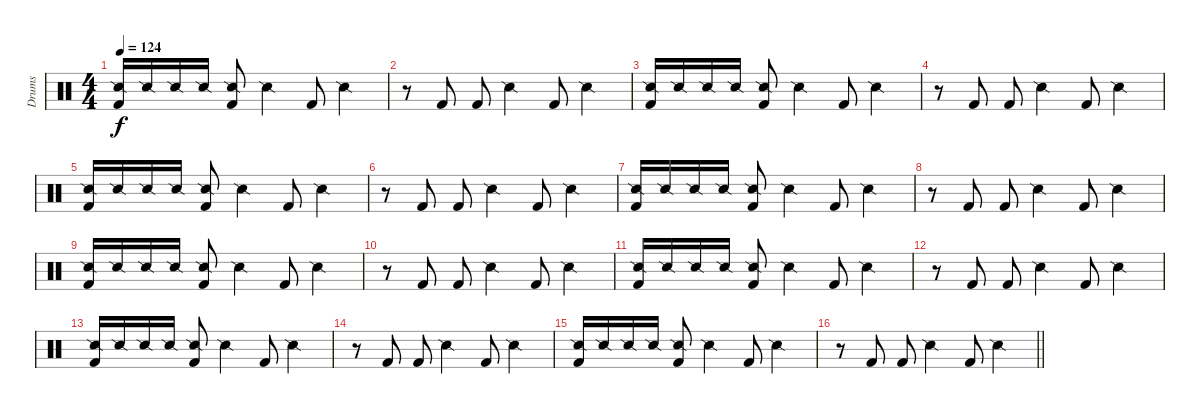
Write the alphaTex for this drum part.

\track ("Drums" "Drums") {instrument percussion}
\staff {score}
\articulation defaults
\ts (4 4)
\tempo 124
\clef neutral
\ks c
("Snare (side stick) 2" "Kick (hit) 2").16{dy f} "Snare (side stick) 2".16 "Snare (side stick) 2".16 "Snare (side stick) 2".16 ("Snare (side stick) 2" "Kick (hit) 2").8 "Snare (side stick) 2".4 "Kick (hit) 2".8 "Snare (side stick) 2".4 |
r.8 "Kick (hit) 2".8 "Kick (hit) 2".8 "Snare (side stick) 2".4 "Kick (hit) 2".8 "Snare (side stick) 2".4 |
("Snare (side stick) 2" "Kick (hit) 2").16 "Snare (side stick) 2".16 "Snare (side stick) 2".16 "Snare (side stick) 2".16 ("Snare (side stick) 2" "Kick (hit) 2").8 "Snare (side stick) 2".4 "Kick (hit) 2".8 "Snare (side stick) 2".4 |
r.8 "Kick (hit) 2".8 "Kick (hit) 2".8 "Snare (side stick) 2".4 "Kick (hit) 2".8 "Snare (side stick) 2".4 |
("Snare (side stick) 2" "Kick (hit) 2").16 "Snare (side stick) 2".16 "Snare (side stick) 2".16 "Snare (side stick) 2".16 ("Snare (side stick) 2" "Kick (hit) 2").8 "Snare (side stick) 2".4 "Kick (hit) 2".8 "Snare (side stick) 2".4 |
r.8 "Kick (hit) 2".8 "Kick (hit) 2".8 "Snare (side stick) 2".4 "Kick (hit) 2".8 "Snare (side stick) 2".4 |
("Snare (side stick) 2" "Kick (hit) 2").16 "Snare (side stick) 2".16 "Snare (side stick) 2".16 "Snare (side stick) 2".16 ("Snare (side stick) 2" "Kick (hit) 2").8 "Snare (side stick) 2".4 "Kick (hit) 2".8 "Snare (side stick) 2".4 |
r.8 "Kick (hit) 2".8 "Kick (hit) 2".8 "Snare (side stick) 2".4 "Kick (hit) 2".8 "Snare (side stick) 2".4 |
("Snare (side stick) 2" "Kick (hit) 2").16 "Snare (side stick) 2".16 "Snare (side stick) 2".16 "Snare (side stick) 2".16 ("Snare (side stick) 2" "Kick (hit) 2").8 "Snare (side stick) 2".4 "Kick (hit) 2".8 "Snare (side stick) 2".4 |
r.8 "Kick (hit) 2".8 "Kick (hit) 2".8 "Snare (side stick) 2".4 "Kick (hit) 2".8 "Snare (side stick) 2".4 |
("Snare (side stick) 2" "Kick (hit) 2").16 "Snare (side stick) 2".16 "Snare (side stick) 2".16 "Snare (side stick) 2".16 ("Snare (side stick) 2" "Kick (hit) 2").8 "Snare (side stick) 2".4 "Kick (hit) 2".8 "Snare (side stick) 2".4 |
r.8 "Kick (hit) 2".8 "Kick (hit) 2".8 "Snare (side stick) 2".4 "Kick (hit) 2".8 "Snare (side stick) 2".4 |
("Snare (side stick) 2" "Kick (hit) 2").16 "Snare (side stick) 2".16 "Snare (side stick) 2".16 "Snare (side stick) 2".16 ("Snare (side stick) 2" "Kick (hit) 2").8 "Snare (side stick) 2".4 "Kick (hit) 2".8 "Snare (side stick) 2".4 |
r.8 "Kick (hit) 2".8 "Kick (hit) 2".8 "Snare (side stick) 2".4 "Kick (hit) 2".8 "Snare (side stick) 2".4 |
("Snare (side stick) 2" "Kick (hit) 2").16 "Snare (side stick) 2".16 "Snare (side stick) 2".16 "Snare (side stick) 2".16 ("Snare (side stick) 2" "Kick (hit) 2").8 "Snare (side stick) 2".4 "Kick (hit) 2".8 "Snare (side stick) 2".4 |
\barLineRight lightlight
r.8 "Kick (hit) 2".8 "Kick (hit) 2".8 "Snare (side stick) 2".4 "Kick (hit) 2".8 "Snare (side stick) 2".4
